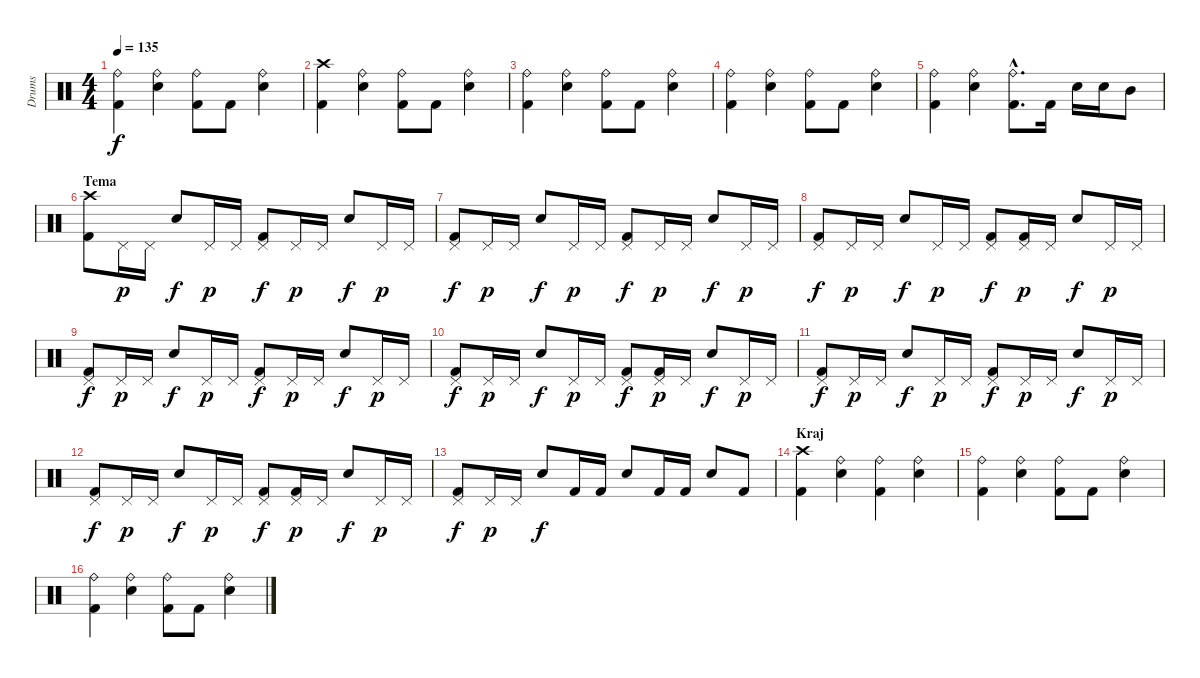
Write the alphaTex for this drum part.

\track ("Drums" "Drums") {instrument percussion}
\staff {score}
\articulation defaults
\ts (4 4)
\tempo 135
\clef neutral
\ks c
("Ride (bell)" "Kick (hit) 2").4{dy f} ("Ride (bell)" "Electric Snare (hit)").4 ("Ride (bell)" "Kick (hit) 2").8 "Kick (hit) 2".8 ("Ride (bell)" "Electric Snare (hit)").4 |
("Crash high (hit)" "Kick (hit) 2").4 ("Ride (bell)" "Electric Snare (hit)").4 ("Ride (bell)" "Kick (hit) 2").8 "Kick (hit) 2".8 ("Ride (bell)" "Electric Snare (hit)").4 |
("Ride (bell)" "Kick (hit) 2").4 ("Ride (bell)" "Electric Snare (hit)").4 ("Ride (bell)" "Kick (hit) 2").8 "Kick (hit) 2".8 ("Ride (bell)" "Electric Snare (hit)").4 |
("Ride (bell)" "Kick (hit) 2").4 ("Ride (bell)" "Electric Snare (hit)").4 ("Ride (bell)" "Kick (hit) 2").8 "Kick (hit) 2".8 ("Ride (bell)" "Electric Snare (hit)").4 |
("Ride (bell)" "Kick (hit) 2").4 ("Ride (bell)" "Electric Snare (hit)").4 ("Ride (bell)"{hac} "Kick (hit) 2"{hac}).8{d} "Kick (hit) 2".16 "Electric Snare (hit)".16 "Electric Snare (hit)".16 "Mid Tom (hit)".8 |
\section ("" "Tema")
("Crash high (hit)" "Kick (hit) 2").8 "Pedal Hi-Hat (hit)".16{dy p} "Pedal Hi-Hat (hit)".16 "Electric Snare (hit)".8{dy f} "Pedal Hi-Hat (hit)".16{dy p} "Pedal Hi-Hat (hit)".16 ("Pedal Hi-Hat (hit)" "Kick (hit) 2").8{dy f} "Pedal Hi-Hat (hit)".16{dy p} "Pedal Hi-Hat (hit)".16 "Electric Snare (hit)".8{dy f} "Pedal Hi-Hat (hit)".16{dy p} "Pedal Hi-Hat (hit)".16 |
("Pedal Hi-Hat (hit)" "Kick (hit) 2").8{dy f} "Pedal Hi-Hat (hit)".16{dy p} "Pedal Hi-Hat (hit)".16 "Electric Snare (hit)".8{dy f} "Pedal Hi-Hat (hit)".16{dy p} "Pedal Hi-Hat (hit)".16 ("Pedal Hi-Hat (hit)" "Kick (hit) 2").8{dy f} "Pedal Hi-Hat (hit)".16{dy p} "Pedal Hi-Hat (hit)".16 "Electric Snare (hit)".8{dy f} "Pedal Hi-Hat (hit)".16{dy p} "Pedal Hi-Hat (hit)".16 |
("Pedal Hi-Hat (hit)" "Kick (hit) 2").8{dy f} "Pedal Hi-Hat (hit)".16{dy p} "Pedal Hi-Hat (hit)".16 "Electric Snare (hit)".8{dy f} "Pedal Hi-Hat (hit)".16{dy p} "Pedal Hi-Hat (hit)".16 ("Pedal Hi-Hat (hit)" "Kick (hit) 2").8{dy f} ("Pedal Hi-Hat (hit)" "Kick (hit) 2").16{dy p} "Pedal Hi-Hat (hit)".16 "Electric Snare (hit)".8{dy f} "Pedal Hi-Hat (hit)".16{dy p} "Pedal Hi-Hat (hit)".16 |
("Pedal Hi-Hat (hit)" "Kick (hit) 2").8{dy f} "Pedal Hi-Hat (hit)".16{dy p} "Pedal Hi-Hat (hit)".16 "Electric Snare (hit)".8{dy f} "Pedal Hi-Hat (hit)".16{dy p} "Pedal Hi-Hat (hit)".16 ("Pedal Hi-Hat (hit)" "Kick (hit) 2").8{dy f} "Pedal Hi-Hat (hit)".16{dy p} "Pedal Hi-Hat (hit)".16 "Electric Snare (hit)".8{dy f} "Pedal Hi-Hat (hit)".16{dy p} "Pedal Hi-Hat (hit)".16 |
("Pedal Hi-Hat (hit)" "Kick (hit) 2").8{dy f} "Pedal Hi-Hat (hit)".16{dy p} "Pedal Hi-Hat (hit)".16 "Electric Snare (hit)".8{dy f} "Pedal Hi-Hat (hit)".16{dy p} "Pedal Hi-Hat (hit)".16 ("Pedal Hi-Hat (hit)" "Kick (hit) 2").8{dy f} ("Pedal Hi-Hat (hit)" "Kick (hit) 2").16{dy p} "Pedal Hi-Hat (hit)".16 "Electric Snare (hit)".8{dy f} "Pedal Hi-Hat (hit)".16{dy p} "Pedal Hi-Hat (hit)".16 |
("Pedal Hi-Hat (hit)" "Kick (hit) 2").8{dy f} "Pedal Hi-Hat (hit)".16{dy p} "Pedal Hi-Hat (hit)".16 "Electric Snare (hit)".8{dy f} "Pedal Hi-Hat (hit)".16{dy p} "Pedal Hi-Hat (hit)".16 ("Pedal Hi-Hat (hit)" "Kick (hit) 2").8{dy f} "Pedal Hi-Hat (hit)".16{dy p} "Pedal Hi-Hat (hit)".16 "Electric Snare (hit)".8{dy f} "Pedal Hi-Hat (hit)".16{dy p} "Pedal Hi-Hat (hit)".16 |
("Pedal Hi-Hat (hit)" "Kick (hit) 2").8{dy f} "Pedal Hi-Hat (hit)".16{dy p} "Pedal Hi-Hat (hit)".16 "Electric Snare (hit)".8{dy f} "Pedal Hi-Hat (hit)".16{dy p} "Pedal Hi-Hat (hit)".16 ("Pedal Hi-Hat (hit)" "Kick (hit) 2").8{dy f} ("Pedal Hi-Hat (hit)" "Kick (hit) 2").16{dy p} "Pedal Hi-Hat (hit)".16 "Electric Snare (hit)".8{dy f} "Pedal Hi-Hat (hit)".16{dy p} "Pedal Hi-Hat (hit)".16 |
("Pedal Hi-Hat (hit)" "Kick (hit) 2").8{dy f} "Pedal Hi-Hat (hit)".16{dy p} "Pedal Hi-Hat (hit)".16 "Electric Snare (hit)".8{dy f} "Kick (hit) 2".16 "Kick (hit) 2".16 "Electric Snare (hit)".8 "Kick (hit) 2".16 "Kick (hit) 2".16 "Electric Snare (hit)".8 "Kick (hit) 2".8 |
\section ("" "Kraj")
("Crash high (hit)" "Kick (hit) 2").4 ("Ride (bell)" "Electric Snare (hit)").4 ("Ride (bell)" "Kick (hit) 2").4 ("Ride (bell)" "Electric Snare (hit)").4 |
("Ride (bell)" "Kick (hit) 2").4 ("Ride (bell)" "Electric Snare (hit)").4 ("Ride (bell)" "Kick (hit) 2").8 "Kick (hit) 2".8 ("Ride (bell)" "Electric Snare (hit)").4 |
("Ride (bell)" "Kick (hit) 2").4 ("Ride (bell)" "Electric Snare (hit)").4 ("Ride (bell)" "Kick (hit) 2").8 "Kick (hit) 2".8 ("Ride (bell)" "Electric Snare (hit)").4
